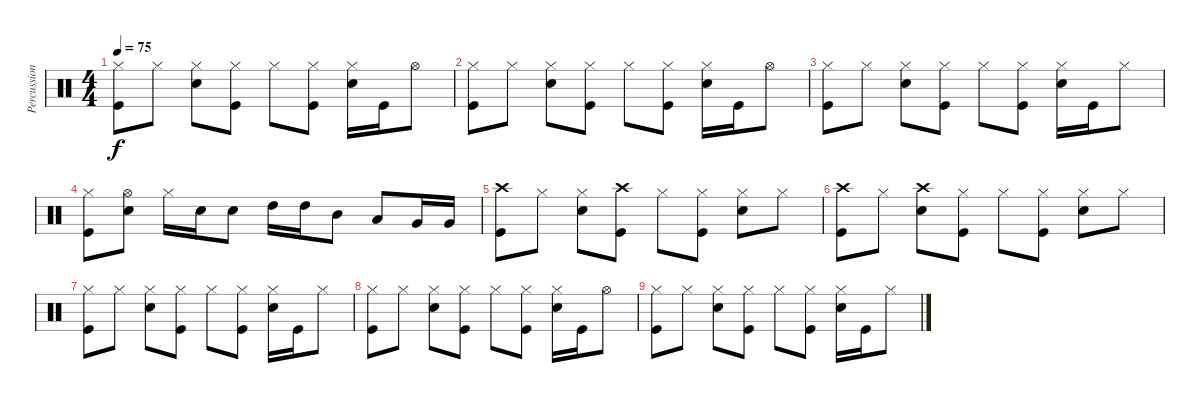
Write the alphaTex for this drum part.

\track ("Percussion 1" "Percussion") {instrument percussion}
\staff {score}
\articulation defaults
\ts (4 4)
\tempo 75
\clef neutral
\ks c
("Hi-Hat (closed)" "Kick (hit)").8{dy f} "Hi-Hat (closed)".8 ("Hi-Hat (closed)" "Snare (hit) 2").8 ("Hi-Hat (closed)" "Kick (hit)").8 "Hi-Hat (closed)".8 ("Hi-Hat (closed)" "Kick (hit)").8 ("Snare (hit) 2" "Hi-Hat (closed)").16 "Kick (hit)".16 "Hi-Hat (open)".8 |
("Hi-Hat (closed)" "Kick (hit)").8 "Hi-Hat (closed)".8 ("Hi-Hat (closed)" "Snare (hit) 2").8 ("Hi-Hat (closed)" "Kick (hit)").8 "Hi-Hat (closed)".8 ("Hi-Hat (closed)" "Kick (hit)").8 ("Snare (hit) 2" "Hi-Hat (closed)").16 "Kick (hit)".16 "Hi-Hat (open)".8 |
("Hi-Hat (closed)" "Kick (hit)").8 "Hi-Hat (closed)".8 ("Hi-Hat (closed)" "Snare (hit) 2").8 ("Hi-Hat (closed)" "Kick (hit)").8 "Hi-Hat (closed)".8 ("Hi-Hat (closed)" "Kick (hit)").8 ("Snare (hit) 2" "Hi-Hat (closed)").16 "Kick (hit)".16 "Hi-Hat (closed)".8 |
("Hi-Hat (closed)" "Kick (hit)").8 ("Hi-Hat (open)" "Snare (hit) 2").8 "Hi-Hat (closed)".16 "Snare (hit) 2".16 "Snare (hit) 2".8 "High Tom (hit)".16 "High Tom (hit)".16 "Mid Tom (hit)".8 "Low Tom (hit)".8 "Very Low Tom (hit)".16 "Very Low Tom (hit)".16 |
("Crash high (hit)" "Kick (hit)").8 "Hi-Hat (closed)".8 ("Hi-Hat (closed)" "Snare (hit) 2").8 ("Crash high (hit)" "Kick (hit)").8 "Hi-Hat (closed)".8 ("Hi-Hat (closed)" "Kick (hit)").8 ("Hi-Hat (closed)" "Snare (hit) 2").8 "Hi-Hat (closed)".8 |
("Crash high (hit)" "Kick (hit)").8 "Hi-Hat (closed)".8 ("Crash high (hit)" "Snare (hit) 2").8 ("Hi-Hat (closed)" "Kick (hit)").8 "Hi-Hat (closed)".8 ("Hi-Hat (closed)" "Kick (hit)").8 ("Snare (hit) 2" "Hi-Hat (closed)").8 "Hi-Hat (closed)".8 |
("Hi-Hat (closed)" "Kick (hit)").8 "Hi-Hat (closed)".8 ("Hi-Hat (closed)" "Snare (hit) 2").8 ("Hi-Hat (closed)" "Kick (hit)").8 "Hi-Hat (closed)".8 ("Hi-Hat (closed)" "Kick (hit)").8 ("Snare (hit) 2" "Hi-Hat (closed)").16 "Kick (hit)".16 "Hi-Hat (closed)".8 |
("Hi-Hat (closed)" "Kick (hit)").8 "Hi-Hat (closed)".8 ("Hi-Hat (closed)" "Snare (hit) 2").8 ("Hi-Hat (closed)" "Kick (hit)").8 "Hi-Hat (closed)".8 ("Hi-Hat (closed)" "Kick (hit)").8 ("Snare (hit) 2" "Hi-Hat (closed)").16 "Kick (hit)".16 "Hi-Hat (open)".8 |
("Hi-Hat (closed)" "Kick (hit)").8 "Hi-Hat (closed)".8 ("Hi-Hat (closed)" "Snare (hit) 2").8 ("Hi-Hat (closed)" "Kick (hit)").8 "Hi-Hat (closed)".8 ("Hi-Hat (closed)" "Kick (hit)").8 ("Snare (hit) 2" "Hi-Hat (closed)").16 "Kick (hit)".16 "Hi-Hat (closed)".8
